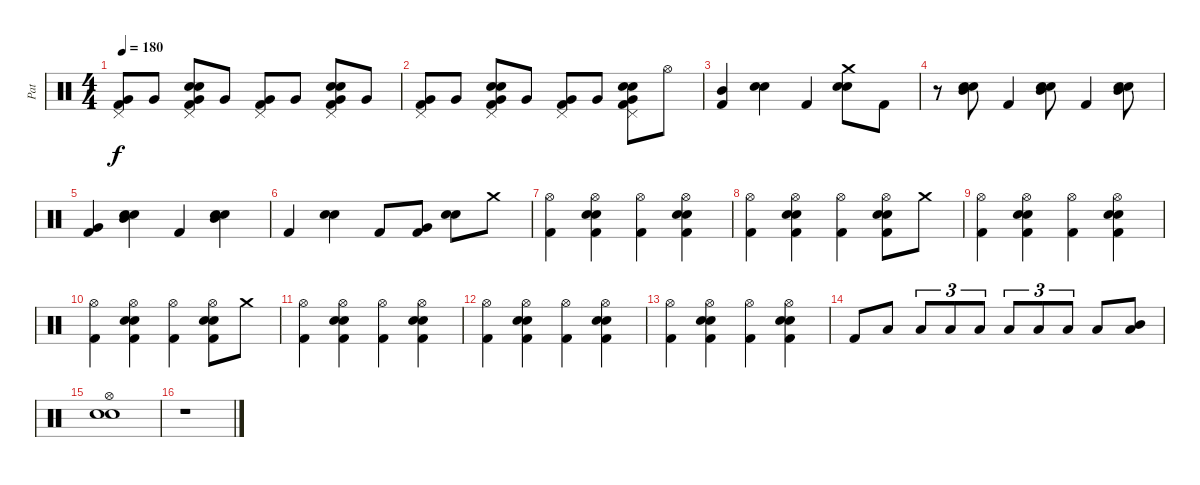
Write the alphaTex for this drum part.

\track ("Pat" "Pat") {instrument percussion}
\staff {score}
\articulation defaults
\ts (4 4)
\tempo 180
\clef neutral
\ks c
("Pedal Hi-Hat (hit)" "Very Low Tom (hit)" "Kick (hit) 2").8{dy f} "Very Low Tom (hit)".8 ("Pedal Hi-Hat (hit)" "Very Low Tom (hit)" "Snare (hit) 2" "Electric Snare (hit)" "Kick (hit) 2").8 "Very Low Tom (hit)".8 ("Pedal Hi-Hat (hit)" "Very Low Tom (hit)" "Kick (hit) 2").8 "Very Low Tom (hit)".8 ("Pedal Hi-Hat (hit)" "Very Low Tom (hit)" "Snare (hit) 2" "Electric Snare (hit)" "Kick (hit) 2").8 "Very Low Tom (hit)".8 |
("Pedal Hi-Hat (hit)" "Very Low Tom (hit)" "Kick (hit) 2").8 "Very Low Tom (hit)".8 ("Pedal Hi-Hat (hit)" "Very Low Tom (hit)" "Snare (hit) 2" "Electric Snare (hit)" "Kick (hit) 2").8 "Very Low Tom (hit)".8 ("Pedal Hi-Hat (hit)" "Very Low Tom (hit)" "Kick (hit) 2").8 "Very Low Tom (hit)".8 ("Pedal Hi-Hat (hit)" "Very Low Tom (hit)" "Snare (hit) 2" "Electric Snare (hit)" "Kick (hit) 2").8 "Hi-Hat (open)".8 |
("Mid Tom (hit)" "Kick (hit) 2").4 ("Snare (hit) 2" "Electric Snare (hit)").4 "Kick (hit) 2".4 ("Crash medium (hit)" "Snare (hit) 2" "Electric Snare (hit)").8 "Kick (hit) 2".8 |
r.8 ("Mid Tom (hit)" "Snare (hit) 2" "Electric Snare (hit)").8 "Kick (hit) 2".4 ("Mid Tom (hit)" "Snare (hit) 2" "Electric Snare (hit)").8 "Kick (hit) 2".4 ("Mid Tom (hit)" "Snare (hit) 2" "Electric Snare (hit)").8 |
("Very Low Tom (hit)" "Kick (hit) 2").4 ("Mid Tom (hit)" "Snare (hit) 2" "Electric Snare (hit)").4 "Kick (hit) 2".4 ("Mid Tom (hit)" "Snare (hit) 2" "Electric Snare (hit)").4 |
"Kick (hit) 2".4 ("Snare (hit) 2" "Electric Snare (hit)").4 "Kick (hit) 2".8 ("Very Low Tom (hit)" "Kick (hit) 2").8 ("Snare (hit) 2" "Electric Snare (hit)").8 "Crash medium (hit)".8 |
("Hi-Hat (open)" "Kick (hit) 2").4 ("Hi-Hat (open)" "Snare (hit) 2" "Electric Snare (hit)" "Kick (hit) 2").4 ("Hi-Hat (open)" "Kick (hit) 2").4 ("Hi-Hat (open)" "Snare (hit) 2" "Electric Snare (hit)" "Kick (hit) 2").4 |
("Hi-Hat (open)" "Kick (hit) 2").4 ("Hi-Hat (open)" "Snare (hit) 2" "Electric Snare (hit)" "Kick (hit) 2").4 ("Hi-Hat (open)" "Kick (hit) 2").4 ("Hi-Hat (open)" "Snare (hit) 2" "Electric Snare (hit)" "Kick (hit) 2").8 "Crash medium (hit)".8 |
("Hi-Hat (open)" "Kick (hit) 2").4 ("Hi-Hat (open)" "Snare (hit) 2" "Electric Snare (hit)" "Kick (hit) 2").4 ("Hi-Hat (open)" "Kick (hit) 2").4 ("Hi-Hat (open)" "Snare (hit) 2" "Electric Snare (hit)" "Kick (hit) 2").4 |
("Hi-Hat (open)" "Kick (hit) 2").4 ("Hi-Hat (open)" "Snare (hit) 2" "Electric Snare (hit)" "Kick (hit) 2").4 ("Hi-Hat (open)" "Kick (hit) 2").4 ("Hi-Hat (open)" "Snare (hit) 2" "Electric Snare (hit)" "Kick (hit) 2").8 "Crash medium (hit)".8 |
("Hi-Hat (open)" "Kick (hit) 2").4 ("Hi-Hat (open)" "Snare (hit) 2" "Electric Snare (hit)" "Kick (hit) 2").4 ("Hi-Hat (open)" "Kick (hit) 2").4 ("Hi-Hat (open)" "Snare (hit) 2" "Electric Snare (hit)" "Kick (hit) 2").4 |
("Hi-Hat (open)" "Kick (hit) 2").4 ("Hi-Hat (open)" "Snare (hit) 2" "Electric Snare (hit)" "Kick (hit) 2").4 ("Hi-Hat (open)" "Kick (hit) 2").4 ("Hi-Hat (open)" "Snare (hit) 2" "Electric Snare (hit)" "Kick (hit) 2").4 |
("Hi-Hat (open)" "Kick (hit) 2").4 ("Hi-Hat (open)" "Snare (hit) 2" "Electric Snare (hit)" "Kick (hit) 2").4 ("Hi-Hat (open)" "Kick (hit) 2").4 ("Hi-Hat (open)" "Snare (hit) 2" "Electric Snare (hit)" "Kick (hit) 2").4 |
"Kick (hit) 2".8 "Low Tom (hit)".8 "Low Tom (hit)".8{tu (3 2)} "Low Tom (hit)".8{tu (3 2)} "Low Tom (hit)".8{tu (3 2)} "Low Tom (hit)".8{tu (3 2)} "Low Tom (hit)".8{tu (3 2)} "Low Tom (hit)".8{tu (3 2)} "Low Tom (hit)".8 ("Mid Tom (hit)" "Low Tom (hit)").8 |
("Snare (hit) 2" "Electric Snare (hit)" "Hi-Hat (open)").1 |
r.1
